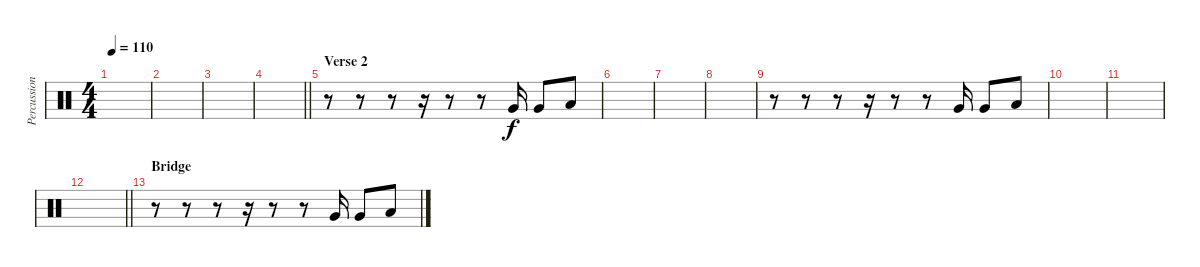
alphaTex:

\track ("Percussion Toms" "Percussion") {instrument percussion}
\staff {score}
\articulation defaults
\ts (4 4)
\tempo 110
\clef neutral
\ks c
|
|
|
\barLineRight lightlight
|
\section ("" "Verse 2")
r.8 r.8 r.8 r.16 r.8 r.8 "Very Low Tom (hit)".16 "Very Low Tom (hit)".8 "Low Floor Tom (hit)".8 |
|
|
|
r.8 r.8 r.8 r.16 r.8 r.8 "Very Low Tom (hit)".16 "Very Low Tom (hit)".8 "Low Floor Tom (hit)".8 |
|
|
\barLineRight lightlight
|
\section ("" "Bridge")
r.8 r.8 r.8 r.16 r.8 r.8 "Very Low Tom (hit)".16 "Very Low Tom (hit)".8 "Low Floor Tom (hit)".8
